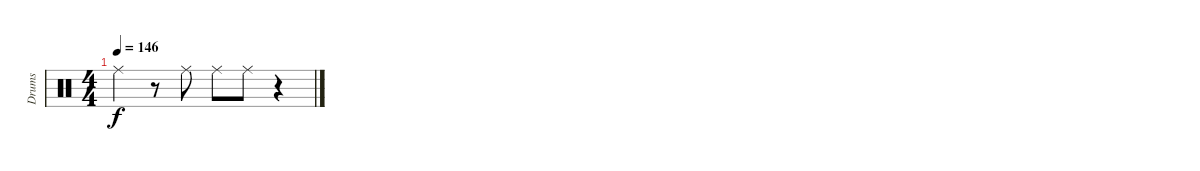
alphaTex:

\track ("Drums" "Drums") {instrument percussion}
\staff {score}
\articulation defaults
\ts (4 4)
\tempo 146
\clef neutral
\ks c "Ride (middle)".4{dy f}
r.8 "Ride (middle)".8 "Ride (middle)".8 "Ride (middle)".8 r.4
